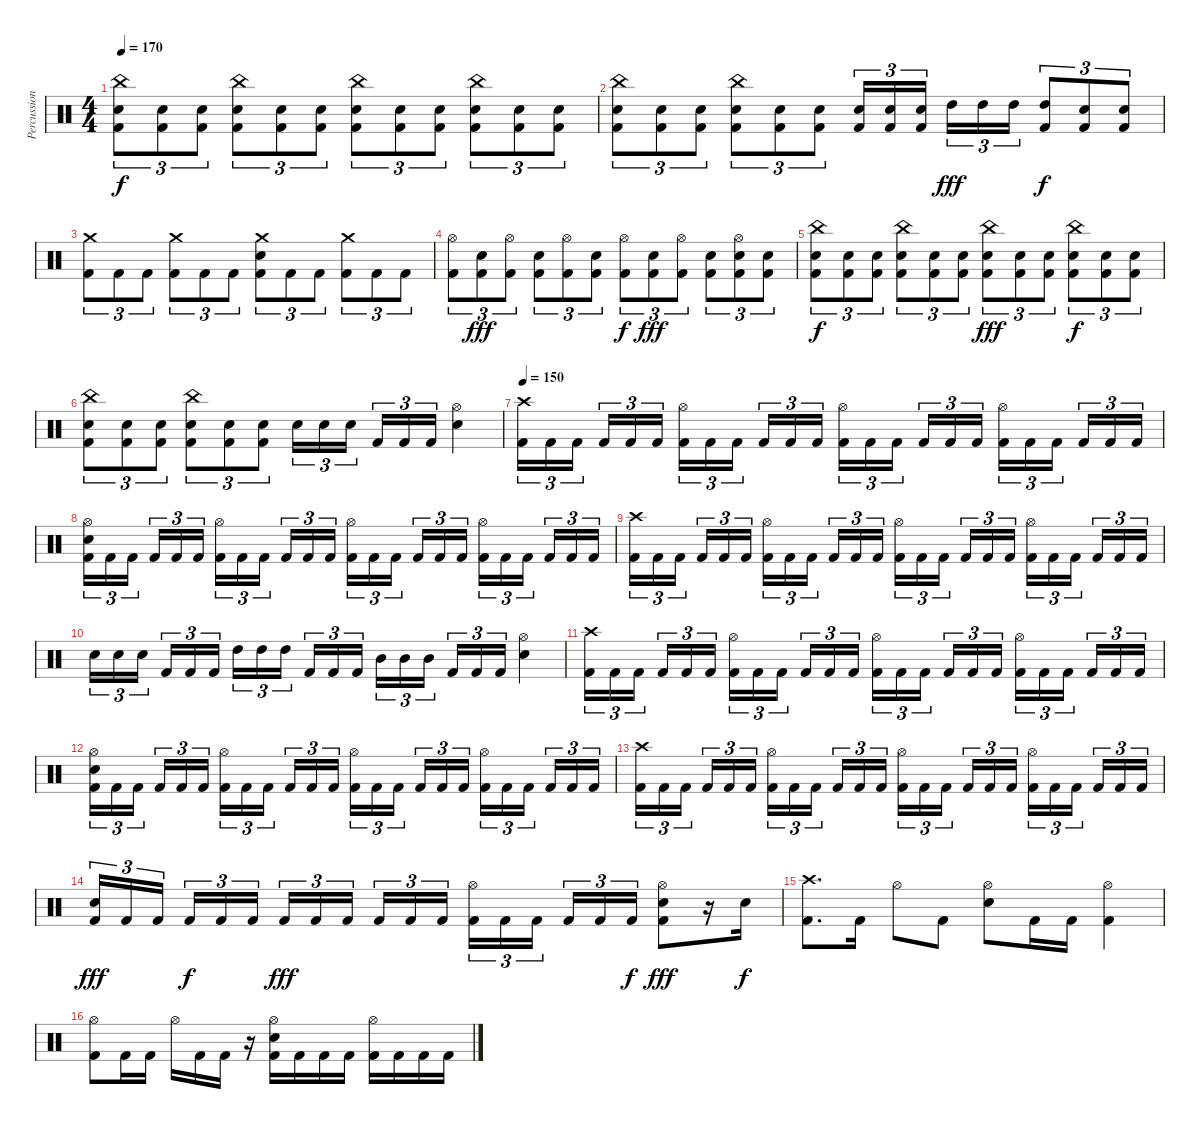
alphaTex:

\track ("Percussion" "Percussion") {instrument percussion}
\staff {score}
\articulation defaults
\ts (4 4)
\tempo 170
\clef neutral
\ks c
("China (hit)" "Electric Snare (hit)" "Kick (hit) 2").8{tu (3 2) dy f} ("Electric Snare (hit)" "Kick (hit) 2").8{tu (3 2)} ("Electric Snare (hit)" "Kick (hit) 2").8{tu (3 2)} ("China (hit)" "Electric Snare (hit)" "Kick (hit) 2").8{tu (3 2)} ("Electric Snare (hit)" "Kick (hit) 2").8{tu (3 2)} ("Electric Snare (hit)" "Kick (hit) 2").8{tu (3 2)} ("China (hit)" "Electric Snare (hit)" "Kick (hit) 2").8{tu (3 2)} ("Electric Snare (hit)" "Kick (hit) 2").8{tu (3 2)} ("Electric Snare (hit)" "Kick (hit) 2").8{tu (3 2)} ("China (hit)" "Electric Snare (hit)" "Kick (hit) 2").8{tu (3 2)} ("Electric Snare (hit)" "Kick (hit) 2").8{tu (3 2)} ("Electric Snare (hit)" "Kick (hit) 2").8{tu (3 2)} |
("China (hit)" "Electric Snare (hit)" "Kick (hit) 2").8{tu (3 2)} ("Electric Snare (hit)" "Kick (hit) 2").8{tu (3 2)} ("Electric Snare (hit)" "Kick (hit) 2").8{tu (3 2)} ("China (hit)" "Electric Snare (hit)" "Kick (hit) 2").8{tu (3 2)} ("Electric Snare (hit)" "Kick (hit) 2").8{tu (3 2)} ("Electric Snare (hit)" "Kick (hit) 2").8{tu (3 2)} ("Electric Snare (hit)" "Kick (hit) 2").16{tu (3 2)} ("Electric Snare (hit)" "Kick (hit) 2").16{tu (3 2)} ("Electric Snare (hit)" "Kick (hit) 2").16{tu (3 2) beam splitsecondary} "High Tom (hit)".16{tu (3 2) dy fff} "High Tom (hit)".16{tu (3 2)} "High Tom (hit)".16{tu (3 2)} ("High Tom (hit)" "Kick (hit) 2").8{tu (3 2) dy f} ("Electric Snare (hit)" "Kick (hit) 2").8{tu (3 2)} ("Electric Snare (hit)" "Kick (hit) 2").8{tu (3 2)} |
("Crash medium (hit)" "Kick (hit) 2").8{tu (3 2)} "Kick (hit) 2".8{tu (3 2)} "Kick (hit) 2".8{tu (3 2)} ("Crash medium (hit)" "Kick (hit) 2").8{tu (3 2)} "Kick (hit) 2".8{tu (3 2)} "Kick (hit) 2".8{tu (3 2)} ("Crash medium (hit)" "Electric Snare (hit)" "Kick (hit) 2").8{tu (3 2)} "Kick (hit) 2".8{tu (3 2)} "Kick (hit) 2".8{tu (3 2)} ("Crash medium (hit)" "Kick (hit) 2").8{tu (3 2)} "Kick (hit) 2".8{tu (3 2)} "Kick (hit) 2".8{tu (3 2)} |
("Hi-Hat (open)" "Kick (hit) 2").8{tu (3 2)} ("Electric Snare (hit)" "Kick (hit) 2").8{tu (3 2) dy fff} ("Hi-Hat (open)" "Kick (hit) 2").8{tu (3 2)} ("Electric Snare (hit)" "Kick (hit) 2").8{tu (3 2)} ("Hi-Hat (open)" "Kick (hit) 2").8{tu (3 2)} ("Electric Snare (hit)" "Kick (hit) 2").8{tu (3 2)} ("Hi-Hat (open)" "Kick (hit) 2").8{tu (3 2) dy f} ("Electric Snare (hit)" "Kick (hit) 2").8{tu (3 2) dy fff} ("Hi-Hat (open)" "Kick (hit) 2").8{tu (3 2)} ("Electric Snare (hit)" "Kick (hit) 2").8{tu (3 2)} ("Hi-Hat (open)" "Electric Snare (hit)" "Kick (hit) 2").8{tu (3 2)} ("Electric Snare (hit)" "Kick (hit) 2").8{tu (3 2)} |
("China (hit)" "Electric Snare (hit)" "Kick (hit) 2").8{tu (3 2) dy f} ("Electric Snare (hit)" "Kick (hit) 2").8{tu (3 2)} ("Electric Snare (hit)" "Kick (hit) 2").8{tu (3 2)} ("China (hit)" "Electric Snare (hit)" "Kick (hit) 2").8{tu (3 2)} ("Electric Snare (hit)" "Kick (hit) 2").8{tu (3 2)} ("Electric Snare (hit)" "Kick (hit) 2").8{tu (3 2)} ("China (hit)" "Electric Snare (hit)" "Kick (hit) 2").8{tu (3 2) dy fff} ("Electric Snare (hit)" "Kick (hit) 2").8{tu (3 2)} ("Electric Snare (hit)" "Kick (hit) 2").8{tu (3 2)} ("China (hit)" "Electric Snare (hit)" "Kick (hit) 2").8{tu (3 2) dy f} ("Electric Snare (hit)" "Kick (hit) 2").8{tu (3 2)} ("Electric Snare (hit)" "Kick (hit) 2").8{tu (3 2)} |
("China (hit)" "Electric Snare (hit)" "Kick (hit) 2").8{tu (3 2)} ("Electric Snare (hit)" "Kick (hit) 2").8{tu (3 2)} ("Electric Snare (hit)" "Kick (hit) 2").8{tu (3 2)} ("China (hit)" "Electric Snare (hit)" "Kick (hit) 2").8{tu (3 2)} ("Electric Snare (hit)" "Kick (hit) 2").8{tu (3 2)} ("Electric Snare (hit)" "Kick (hit) 2").8{tu (3 2)} "Electric Snare (hit)".16{tu (3 2)} "Electric Snare (hit)".16{tu (3 2)} "Electric Snare (hit)".16{tu (3 2) beam splitsecondary} "Kick (hit) 2".16{tu (3 2)} "Kick (hit) 2".16{tu (3 2)} "Kick (hit) 2".16{tu (3 2)} ("Hi-Hat (open)" "Electric Snare (hit)").4 |
\tempo 150
("Crash high (hit)" "Kick (hit) 2").16{tu (3 2)} "Kick (hit) 2".16{tu (3 2)} "Kick (hit) 2".16{tu (3 2) beam splitsecondary} "Kick (hit) 2".16{tu (3 2)} "Kick (hit) 2".16{tu (3 2)} "Kick (hit) 2".16{tu (3 2)} ("Hi-Hat (open)" "Kick (hit) 2").16{tu (3 2)} "Kick (hit) 2".16{tu (3 2)} "Kick (hit) 2".16{tu (3 2) beam splitsecondary} "Kick (hit) 2".16{tu (3 2)} "Kick (hit) 2".16{tu (3 2)} "Kick (hit) 2".16{tu (3 2)} ("Hi-Hat (open)" "Kick (hit) 2").16{tu (3 2)} "Kick (hit) 2".16{tu (3 2)} "Kick (hit) 2".16{tu (3 2) beam splitsecondary} "Kick (hit) 2".16{tu (3 2)} "Kick (hit) 2".16{tu (3 2)} "Kick (hit) 2".16{tu (3 2)} ("Hi-Hat (open)" "Kick (hit) 2").16{tu (3 2)} "Kick (hit) 2".16{tu (3 2)} "Kick (hit) 2".16{tu (3 2) beam splitsecondary} "Kick (hit) 2".16{tu (3 2)} "Kick (hit) 2".16{tu (3 2)} "Kick (hit) 2".16{tu (3 2)} |
("Hi-Hat (open)" "Electric Snare (hit)" "Kick (hit) 2").16{tu (3 2)} "Kick (hit) 2".16{tu (3 2)} "Kick (hit) 2".16{tu (3 2) beam splitsecondary} "Kick (hit) 2".16{tu (3 2)} "Kick (hit) 2".16{tu (3 2)} "Kick (hit) 2".16{tu (3 2)} ("Hi-Hat (open)" "Kick (hit) 2").16{tu (3 2)} "Kick (hit) 2".16{tu (3 2)} "Kick (hit) 2".16{tu (3 2) beam splitsecondary} "Kick (hit) 2".16{tu (3 2)} "Kick (hit) 2".16{tu (3 2)} "Kick (hit) 2".16{tu (3 2)} ("Hi-Hat (open)" "Kick (hit) 2").16{tu (3 2)} "Kick (hit) 2".16{tu (3 2)} "Kick (hit) 2".16{tu (3 2) beam splitsecondary} "Kick (hit) 2".16{tu (3 2)} "Kick (hit) 2".16{tu (3 2)} "Kick (hit) 2".16{tu (3 2)} ("Hi-Hat (open)" "Kick (hit) 2").16{tu (3 2)} "Kick (hit) 2".16{tu (3 2)} "Kick (hit) 2".16{tu (3 2) beam splitsecondary} "Kick (hit) 2".16{tu (3 2)} "Kick (hit) 2".16{tu (3 2)} "Kick (hit) 2".16{tu (3 2)} |
("Crash high (hit)" "Kick (hit) 2").16{tu (3 2)} "Kick (hit) 2".16{tu (3 2)} "Kick (hit) 2".16{tu (3 2) beam splitsecondary} "Kick (hit) 2".16{tu (3 2)} "Kick (hit) 2".16{tu (3 2)} "Kick (hit) 2".16{tu (3 2)} ("Hi-Hat (open)" "Kick (hit) 2").16{tu (3 2)} "Kick (hit) 2".16{tu (3 2)} "Kick (hit) 2".16{tu (3 2) beam splitsecondary} "Kick (hit) 2".16{tu (3 2)} "Kick (hit) 2".16{tu (3 2)} "Kick (hit) 2".16{tu (3 2)} ("Hi-Hat (open)" "Kick (hit) 2").16{tu (3 2)} "Kick (hit) 2".16{tu (3 2)} "Kick (hit) 2".16{tu (3 2) beam splitsecondary} "Kick (hit) 2".16{tu (3 2)} "Kick (hit) 2".16{tu (3 2)} "Kick (hit) 2".16{tu (3 2)} ("Hi-Hat (open)" "Kick (hit) 2").16{tu (3 2)} "Kick (hit) 2".16{tu (3 2)} "Kick (hit) 2".16{tu (3 2) beam splitsecondary} "Kick (hit) 2".16{tu (3 2)} "Kick (hit) 2".16{tu (3 2)} "Kick (hit) 2".16{tu (3 2)} |
"Electric Snare (hit)".16{tu (3 2)} "Electric Snare (hit)".16{tu (3 2)} "Electric Snare (hit)".16{tu (3 2) beam splitsecondary} "Kick (hit) 2".16{tu (3 2)} "Kick (hit) 2".16{tu (3 2)} "Kick (hit) 2".16{tu (3 2)} "High Tom (hit)".16{tu (3 2)} "High Tom (hit)".16{tu (3 2)} "High Tom (hit)".16{tu (3 2) beam splitsecondary} "Kick (hit) 2".16{tu (3 2)} "Kick (hit) 2".16{tu (3 2)} "Kick (hit) 2".16{tu (3 2)} "Mid Tom (hit)".16{tu (3 2)} "Mid Tom (hit)".16{tu (3 2)} "Mid Tom (hit)".16{tu (3 2) beam splitsecondary} "Kick (hit) 2".16{tu (3 2)} "Kick (hit) 2".16{tu (3 2)} "Kick (hit) 2".16{tu (3 2)} ("Hi-Hat (open)" "Electric Snare (hit)").4 |
("Crash high (hit)" "Kick (hit) 2").16{tu (3 2)} "Kick (hit) 2".16{tu (3 2)} "Kick (hit) 2".16{tu (3 2) beam splitsecondary} "Kick (hit) 2".16{tu (3 2)} "Kick (hit) 2".16{tu (3 2)} "Kick (hit) 2".16{tu (3 2)} ("Hi-Hat (open)" "Kick (hit) 2").16{tu (3 2)} "Kick (hit) 2".16{tu (3 2)} "Kick (hit) 2".16{tu (3 2) beam splitsecondary} "Kick (hit) 2".16{tu (3 2)} "Kick (hit) 2".16{tu (3 2)} "Kick (hit) 2".16{tu (3 2)} ("Hi-Hat (open)" "Kick (hit) 2").16{tu (3 2)} "Kick (hit) 2".16{tu (3 2)} "Kick (hit) 2".16{tu (3 2) beam splitsecondary} "Kick (hit) 2".16{tu (3 2)} "Kick (hit) 2".16{tu (3 2)} "Kick (hit) 2".16{tu (3 2)} ("Hi-Hat (open)" "Kick (hit) 2").16{tu (3 2)} "Kick (hit) 2".16{tu (3 2)} "Kick (hit) 2".16{tu (3 2) beam splitsecondary} "Kick (hit) 2".16{tu (3 2)} "Kick (hit) 2".16{tu (3 2)} "Kick (hit) 2".16{tu (3 2)} |
("Hi-Hat (open)" "Electric Snare (hit)" "Kick (hit) 2").16{tu (3 2)} "Kick (hit) 2".16{tu (3 2)} "Kick (hit) 2".16{tu (3 2) beam splitsecondary} "Kick (hit) 2".16{tu (3 2)} "Kick (hit) 2".16{tu (3 2)} "Kick (hit) 2".16{tu (3 2)} ("Hi-Hat (open)" "Kick (hit) 2").16{tu (3 2)} "Kick (hit) 2".16{tu (3 2)} "Kick (hit) 2".16{tu (3 2) beam splitsecondary} "Kick (hit) 2".16{tu (3 2)} "Kick (hit) 2".16{tu (3 2)} "Kick (hit) 2".16{tu (3 2)} ("Hi-Hat (open)" "Kick (hit) 2").16{tu (3 2)} "Kick (hit) 2".16{tu (3 2)} "Kick (hit) 2".16{tu (3 2) beam splitsecondary} "Kick (hit) 2".16{tu (3 2)} "Kick (hit) 2".16{tu (3 2)} "Kick (hit) 2".16{tu (3 2)} ("Hi-Hat (open)" "Kick (hit) 2").16{tu (3 2)} "Kick (hit) 2".16{tu (3 2)} "Kick (hit) 2".16{tu (3 2) beam splitsecondary} "Kick (hit) 2".16{tu (3 2)} "Kick (hit) 2".16{tu (3 2)} "Kick (hit) 2".16{tu (3 2)} |
("Crash high (hit)" "Kick (hit) 2").16{tu (3 2)} "Kick (hit) 2".16{tu (3 2)} "Kick (hit) 2".16{tu (3 2) beam splitsecondary} "Kick (hit) 2".16{tu (3 2)} "Kick (hit) 2".16{tu (3 2)} "Kick (hit) 2".16{tu (3 2)} ("Hi-Hat (open)" "Kick (hit) 2").16{tu (3 2)} "Kick (hit) 2".16{tu (3 2)} "Kick (hit) 2".16{tu (3 2) beam splitsecondary} "Kick (hit) 2".16{tu (3 2)} "Kick (hit) 2".16{tu (3 2)} "Kick (hit) 2".16{tu (3 2)} ("Hi-Hat (open)" "Kick (hit) 2").16{tu (3 2)} "Kick (hit) 2".16{tu (3 2)} "Kick (hit) 2".16{tu (3 2) beam splitsecondary} "Kick (hit) 2".16{tu (3 2)} "Kick (hit) 2".16{tu (3 2)} "Kick (hit) 2".16{tu (3 2)} ("Hi-Hat (open)" "Kick (hit) 2").16{tu (3 2)} "Kick (hit) 2".16{tu (3 2)} "Kick (hit) 2".16{tu (3 2) beam splitsecondary} "Kick (hit) 2".16{tu (3 2)} "Kick (hit) 2".16{tu (3 2)} "Kick (hit) 2".16{tu (3 2)} |
("Electric Snare (hit)" "Kick (hit) 2").16{tu (3 2) dy fff} "Kick (hit) 2".16{tu (3 2)} "Kick (hit) 2".16{tu (3 2) beam splitsecondary} "Kick (hit) 2".16{tu (3 2) dy f} "Kick (hit) 2".16{tu (3 2)} "Kick (hit) 2".16{tu (3 2)} "Kick (hit) 2".16{tu (3 2) dy fff} "Kick (hit) 2".16{tu (3 2)} "Kick (hit) 2".16{tu (3 2) beam splitsecondary} "Kick (hit) 2".16{tu (3 2)} "Kick (hit) 2".16{tu (3 2)} "Kick (hit) 2".16{tu (3 2)} ("Hi-Hat (open)" "Kick (hit) 2").16{tu (3 2)} "Kick (hit) 2".16{tu (3 2)} "Kick (hit) 2".16{tu (3 2) beam splitsecondary} "Kick (hit) 2".16{tu (3 2)} "Kick (hit) 2".16{tu (3 2)} "Kick (hit) 2".16{tu (3 2) dy f} ("Hi-Hat (open)" "Electric Snare (hit)" "Kick (hit) 2").8{dy fff} r.16 "Electric Snare (hit)".16{dy f} |
("Crash high (hit)" "Kick (hit) 2").8{d} "Kick (hit) 2".16 "Hi-Hat (open)".8 "Kick (hit) 2".8 ("Hi-Hat (open)" "Electric Snare (hit)").8 "Kick (hit) 2".16 "Kick (hit) 2".16 ("Hi-Hat (open)" "Kick (hit) 2").4 |
("Hi-Hat (open)" "Kick (hit) 2").8 "Kick (hit) 2".16 "Kick (hit) 2".16 "Hi-Hat (open)".16 "Kick (hit) 2".16 "Kick (hit) 2".16 r.16 ("Hi-Hat (open)" "Electric Snare (hit)" "Kick (hit) 2").16 "Kick (hit) 2".16 "Kick (hit) 2".16 "Kick (hit) 2".16 ("Hi-Hat (open)" "Kick (hit) 2").16 "Kick (hit) 2".16 "Kick (hit) 2".16 "Kick (hit) 2".16
